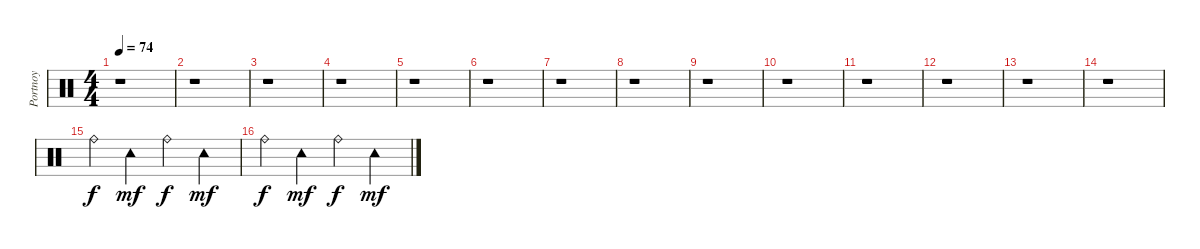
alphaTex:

\track ("Portnoy" "Portnoy") {instrument percussion}
\staff {score}
\articulation defaults
\ts (4 4)
\tempo 74
\clef neutral
\ks c
r.1{dy f} |
r.1 |
r.1 |
r.1 |
r.1 |
r.1 |
r.1 |
r.1 |
r.1 |
r.1 |
r.1 |
r.1 |
r.1 |
r.1 |
"Ride (bell)".4 "Tambourine (hit)".4{dy mf} "Ride (bell)".4{dy f} "Tambourine (hit)".4{dy mf} |
"Ride (bell)".4{dy f} "Tambourine (hit)".4{dy mf} "Ride (bell)".4{dy f} "Tambourine (hit)".4{dy mf}
